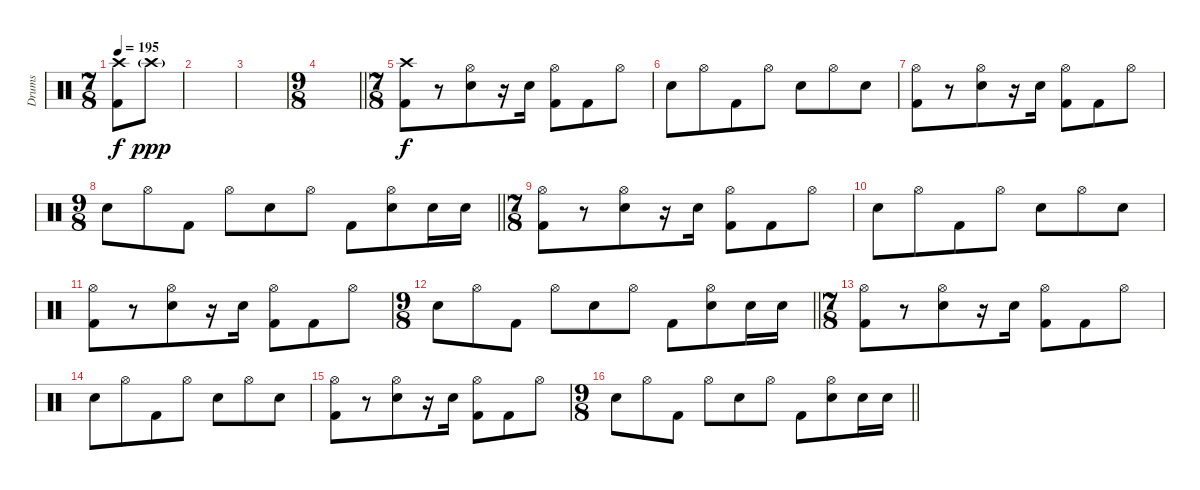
\track ("Drums" "Drums") {instrument percussion}
\staff {score}
\articulation defaults
\ts (7 8)
\tempo 195
\clef neutral
\ks c
("Crash high (hit)" "Kick (hit) 2").8{dy f} "Crash high (hit)"{g}.8{dy ppp} |
|
|
\ts (9 8)
\barLineRight lightlight
|
\ts (7 8)
("Crash high (hit)" "Kick (hit) 2").8{dy f} r.8 ("Hi-Hat (open)" "Electric Snare (hit)").8 r.16 "Electric Snare (hit)".16 ("Hi-Hat (open)" "Kick (hit) 2").8 "Kick (hit) 2".8 "Hi-Hat (open)".8 |
"Electric Snare (hit)".8 "Hi-Hat (open)".8 "Kick (hit) 2".8 "Hi-Hat (open)".8 "Electric Snare (hit)".8 "Hi-Hat (open)".8 "Electric Snare (hit)".8 |
("Hi-Hat (open)" "Kick (hit) 2").8 r.8 ("Hi-Hat (open)" "Electric Snare (hit)").8 r.16 "Electric Snare (hit)".16 ("Hi-Hat (open)" "Kick (hit) 2").8 "Kick (hit) 2".8 "Hi-Hat (open)".8 |
\ts (9 8)
\barLineRight lightlight "Electric Snare (hit)".8 "Hi-Hat (open)".8 "Kick (hit) 2".8 "Hi-Hat (open)".8 "Electric Snare (hit)".8 "Hi-Hat (open)".8 "Kick (hit) 2".8
("Hi-Hat (open)" "Electric Snare (hit)").8 "Electric Snare (hit)".16 "Electric Snare (hit)".16 |
\ts (7 8)
("Hi-Hat (open)" "Kick (hit) 2").8 r.8 ("Hi-Hat (open)" "Electric Snare (hit)").8 r.16 "Electric Snare (hit)".16 ("Hi-Hat (open)" "Kick (hit) 2").8 "Kick (hit) 2".8 "Hi-Hat (open)".8 |
"Electric Snare (hit)".8 "Hi-Hat (open)".8 "Kick (hit) 2".8 "Hi-Hat (open)".8 "Electric Snare (hit)".8 "Hi-Hat (open)".8 "Electric Snare (hit)".8 |
("Hi-Hat (open)" "Kick (hit) 2").8 r.8 ("Hi-Hat (open)" "Electric Snare (hit)").8 r.16 "Electric Snare (hit)".16 ("Hi-Hat (open)" "Kick (hit) 2").8 "Kick (hit) 2".8 "Hi-Hat (open)".8 |
\ts (9 8)
\barLineRight lightlight "Electric Snare (hit)".8 "Hi-Hat (open)".8 "Kick (hit) 2".8 "Hi-Hat (open)".8 "Electric Snare (hit)".8 "Hi-Hat (open)".8 "Kick (hit) 2".8
("Hi-Hat (open)" "Electric Snare (hit)").8 "Electric Snare (hit)".16 "Electric Snare (hit)".16 |
\ts (7 8)
("Hi-Hat (open)" "Kick (hit) 2").8 r.8 ("Hi-Hat (open)" "Electric Snare (hit)").8 r.16 "Electric Snare (hit)".16 ("Hi-Hat (open)" "Kick (hit) 2").8 "Kick (hit) 2".8 "Hi-Hat (open)".8 |
"Electric Snare (hit)".8 "Hi-Hat (open)".8 "Kick (hit) 2".8 "Hi-Hat (open)".8 "Electric Snare (hit)".8 "Hi-Hat (open)".8 "Electric Snare (hit)".8 |
("Hi-Hat (open)" "Kick (hit) 2").8 r.8 ("Hi-Hat (open)" "Electric Snare (hit)").8 r.16 "Electric Snare (hit)".16 ("Hi-Hat (open)" "Kick (hit) 2").8 "Kick (hit) 2".8 "Hi-Hat (open)".8 |
\ts (9 8)
\barLineRight lightlight "Electric Snare (hit)".8 "Hi-Hat (open)".8 "Kick (hit) 2".8 "Hi-Hat (open)".8 "Electric Snare (hit)".8 "Hi-Hat (open)".8 "Kick (hit) 2".8
("Hi-Hat (open)" "Electric Snare (hit)").8 "Electric Snare (hit)".16 "Electric Snare (hit)".16
